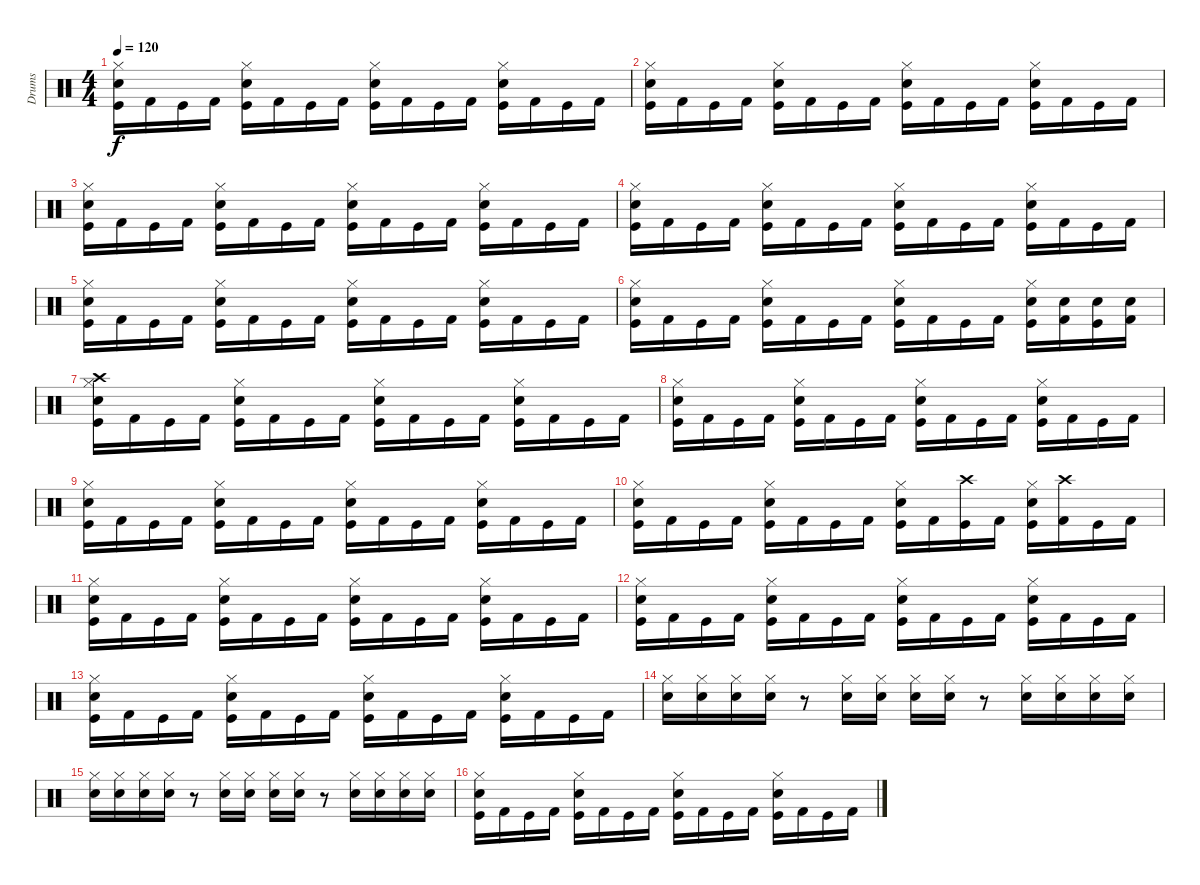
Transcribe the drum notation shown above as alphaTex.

\track ("Drums" "Drums") {instrument percussion}
\staff {score}
\articulation defaults
\ts (4 4)
\tempo 120
\clef neutral
\ks c
("Hi-Hat (closed)" "Snare (hit) 2" "Kick (hit)").16{dy f} "Kick (hit) 2".16 "Kick (hit)".16 "Kick (hit) 2".16 ("Hi-Hat (closed)" "Snare (hit) 2" "Kick (hit)").16 "Kick (hit) 2".16 "Kick (hit)".16 "Kick (hit) 2".16 ("Hi-Hat (closed)" "Snare (hit) 2" "Kick (hit)").16 "Kick (hit) 2".16 "Kick (hit)".16 "Kick (hit) 2".16 ("Hi-Hat (closed)" "Snare (hit) 2" "Kick (hit)").16 "Kick (hit) 2".16 "Kick (hit)".16 "Kick (hit) 2".16 |
("Hi-Hat (closed)" "Snare (hit) 2" "Kick (hit)").16 "Kick (hit) 2".16 "Kick (hit)".16 "Kick (hit) 2".16 ("Hi-Hat (closed)" "Snare (hit) 2" "Kick (hit)").16 "Kick (hit) 2".16 "Kick (hit)".16 "Kick (hit) 2".16 ("Hi-Hat (closed)" "Snare (hit) 2" "Kick (hit)").16 "Kick (hit) 2".16 "Kick (hit)".16 "Kick (hit) 2".16 ("Hi-Hat (closed)" "Snare (hit) 2" "Kick (hit)").16 "Kick (hit) 2".16 "Kick (hit)".16 "Kick (hit) 2".16 |
("Hi-Hat (closed)" "Snare (hit) 2" "Kick (hit)").16 "Kick (hit) 2".16 "Kick (hit)".16 "Kick (hit) 2".16 ("Hi-Hat (closed)" "Snare (hit) 2" "Kick (hit)").16 "Kick (hit) 2".16 "Kick (hit)".16 "Kick (hit) 2".16 ("Hi-Hat (closed)" "Snare (hit) 2" "Kick (hit)").16 "Kick (hit) 2".16 "Kick (hit)".16 "Kick (hit) 2".16 ("Hi-Hat (closed)" "Snare (hit) 2" "Kick (hit)").16 "Kick (hit) 2".16 "Kick (hit)".16 "Kick (hit) 2".16 |
("Hi-Hat (closed)" "Snare (hit) 2" "Kick (hit)").16 "Kick (hit) 2".16 "Kick (hit)".16 "Kick (hit) 2".16 ("Hi-Hat (closed)" "Snare (hit) 2" "Kick (hit)").16 "Kick (hit) 2".16 "Kick (hit)".16 "Kick (hit) 2".16 ("Hi-Hat (closed)" "Snare (hit) 2" "Kick (hit)").16 "Kick (hit) 2".16 "Kick (hit)".16 "Kick (hit) 2".16 ("Hi-Hat (closed)" "Snare (hit) 2" "Kick (hit)").16 "Kick (hit) 2".16 "Kick (hit)".16 "Kick (hit) 2".16 |
("Hi-Hat (closed)" "Snare (hit) 2" "Kick (hit)").16 "Kick (hit) 2".16 "Kick (hit)".16 "Kick (hit) 2".16 ("Hi-Hat (closed)" "Snare (hit) 2" "Kick (hit)").16 "Kick (hit) 2".16 "Kick (hit)".16 "Kick (hit) 2".16 ("Hi-Hat (closed)" "Snare (hit) 2" "Kick (hit)").16 "Kick (hit) 2".16 "Kick (hit)".16 "Kick (hit) 2".16 ("Hi-Hat (closed)" "Snare (hit) 2" "Kick (hit)").16 "Kick (hit) 2".16 "Kick (hit)".16 "Kick (hit) 2".16 |
("Hi-Hat (closed)" "Snare (hit) 2" "Kick (hit)").16 "Kick (hit) 2".16 "Kick (hit)".16 "Kick (hit) 2".16 ("Hi-Hat (closed)" "Snare (hit) 2" "Kick (hit)").16 "Kick (hit) 2".16 "Kick (hit)".16 "Kick (hit) 2".16 ("Hi-Hat (closed)" "Snare (hit) 2" "Kick (hit)").16 "Kick (hit) 2".16 "Kick (hit)".16 "Kick (hit) 2".16 ("Hi-Hat (closed)" "Snare (hit) 2" "Kick (hit)").16 ("Snare (hit) 2" "Kick (hit) 2").16 ("Snare (hit) 2" "Kick (hit)").16 ("Snare (hit) 2" "Kick (hit) 2").16 |
("Hi-Hat (closed)" "Crash high (hit)" "Snare (hit) 2" "Kick (hit)").16 "Kick (hit) 2".16 "Kick (hit)".16 "Kick (hit) 2".16 ("Hi-Hat (closed)" "Snare (hit) 2" "Kick (hit)").16 "Kick (hit) 2".16 "Kick (hit)".16 "Kick (hit) 2".16 ("Hi-Hat (closed)" "Snare (hit) 2" "Kick (hit)").16 "Kick (hit) 2".16 "Kick (hit)".16 "Kick (hit) 2".16 ("Hi-Hat (closed)" "Snare (hit) 2" "Kick (hit)").16 "Kick (hit) 2".16 "Kick (hit)".16 "Kick (hit) 2".16 |
("Hi-Hat (closed)" "Snare (hit) 2" "Kick (hit)").16 "Kick (hit) 2".16 "Kick (hit)".16 "Kick (hit) 2".16 ("Hi-Hat (closed)" "Snare (hit) 2" "Kick (hit)").16 "Kick (hit) 2".16 "Kick (hit)".16 "Kick (hit) 2".16 ("Hi-Hat (closed)" "Snare (hit) 2" "Kick (hit)").16 "Kick (hit) 2".16 "Kick (hit)".16 "Kick (hit) 2".16 ("Hi-Hat (closed)" "Snare (hit) 2" "Kick (hit)").16 "Kick (hit) 2".16 "Kick (hit)".16 "Kick (hit) 2".16 |
("Hi-Hat (closed)" "Snare (hit) 2" "Kick (hit)").16 "Kick (hit) 2".16 "Kick (hit)".16 "Kick (hit) 2".16 ("Hi-Hat (closed)" "Snare (hit) 2" "Kick (hit)").16 "Kick (hit) 2".16 "Kick (hit)".16 "Kick (hit) 2".16 ("Hi-Hat (closed)" "Snare (hit) 2" "Kick (hit)").16 "Kick (hit) 2".16 "Kick (hit)".16 "Kick (hit) 2".16 ("Hi-Hat (closed)" "Snare (hit) 2" "Kick (hit)").16 "Kick (hit) 2".16 "Kick (hit)".16 "Kick (hit) 2".16 |
("Hi-Hat (closed)" "Snare (hit) 2" "Kick (hit)").16 "Kick (hit) 2".16 "Kick (hit)".16 "Kick (hit) 2".16 ("Hi-Hat (closed)" "Snare (hit) 2" "Kick (hit)").16 "Kick (hit) 2".16 "Kick (hit)".16 "Kick (hit) 2".16 ("Hi-Hat (closed)" "Snare (hit) 2" "Kick (hit)").16 "Kick (hit) 2".16 ("Crash high (hit)" "Kick (hit)").16 "Kick (hit) 2".16 ("Hi-Hat (closed)" "Snare (hit) 2" "Kick (hit)").16 ("Crash high (hit)" "Kick (hit) 2").16 "Kick (hit)".16 "Kick (hit) 2".16 |
("Hi-Hat (closed)" "Snare (hit) 2" "Kick (hit)").16 "Kick (hit) 2".16 "Kick (hit)".16 "Kick (hit) 2".16 ("Hi-Hat (closed)" "Snare (hit) 2" "Kick (hit)").16 "Kick (hit) 2".16 "Kick (hit)".16 "Kick (hit) 2".16 ("Hi-Hat (closed)" "Snare (hit) 2" "Kick (hit)").16 "Kick (hit) 2".16 "Kick (hit)".16 "Kick (hit) 2".16 ("Hi-Hat (closed)" "Snare (hit) 2" "Kick (hit)").16 "Kick (hit) 2".16 "Kick (hit)".16 "Kick (hit) 2".16 |
("Hi-Hat (closed)" "Snare (hit) 2" "Kick (hit)").16 "Kick (hit) 2".16 "Kick (hit)".16 "Kick (hit) 2".16 ("Hi-Hat (closed)" "Snare (hit) 2" "Kick (hit)").16 "Kick (hit) 2".16 "Kick (hit)".16 "Kick (hit) 2".16 ("Hi-Hat (closed)" "Snare (hit) 2" "Kick (hit)").16 "Kick (hit) 2".16 "Kick (hit)".16 "Kick (hit) 2".16 ("Hi-Hat (closed)" "Snare (hit) 2" "Kick (hit)").16 "Kick (hit) 2".16 "Kick (hit)".16 "Kick (hit) 2".16 |
("Hi-Hat (closed)" "Snare (hit) 2" "Kick (hit)").16 "Kick (hit) 2".16 "Kick (hit)".16 "Kick (hit) 2".16 ("Hi-Hat (closed)" "Snare (hit) 2" "Kick (hit)").16 "Kick (hit) 2".16 "Kick (hit)".16 "Kick (hit) 2".16 ("Hi-Hat (closed)" "Snare (hit) 2" "Kick (hit)").16 "Kick (hit) 2".16 "Kick (hit)".16 "Kick (hit) 2".16 ("Hi-Hat (closed)" "Snare (hit) 2" "Kick (hit)").16 "Kick (hit) 2".16 "Kick (hit)".16 "Kick (hit) 2".16 |
("Hi-Hat (closed)" "Electric Snare (hit)").16 ("Hi-Hat (closed)" "Electric Snare (hit)").16 ("Hi-Hat (closed)" "Electric Snare (hit)").16 ("Hi-Hat (closed)" "Electric Snare (hit)").16 r.8 ("Hi-Hat (closed)" "Electric Snare (hit)").16 ("Hi-Hat (closed)" "Electric Snare (hit)").16 ("Hi-Hat (closed)" "Electric Snare (hit)").16 ("Hi-Hat (closed)" "Electric Snare (hit)").16 r.8 ("Hi-Hat (closed)" "Electric Snare (hit)").16 ("Hi-Hat (closed)" "Electric Snare (hit)").16 ("Hi-Hat (closed)" "Electric Snare (hit)").16 ("Hi-Hat (closed)" "Electric Snare (hit)").16 |
("Hi-Hat (closed)" "Snare (hit) 2").16 ("Hi-Hat (closed)" "Snare (hit) 2").16 ("Hi-Hat (closed)" "Snare (hit) 2").16 ("Hi-Hat (closed)" "Snare (hit) 2").16 r.8 ("Hi-Hat (closed)" "Snare (hit) 2").16 ("Hi-Hat (closed)" "Snare (hit) 2").16 ("Hi-Hat (closed)" "Snare (hit) 2").16 ("Hi-Hat (closed)" "Snare (hit) 2").16 r.8 ("Hi-Hat (closed)" "Snare (hit) 2").16 ("Hi-Hat (closed)" "Snare (hit) 2").16 ("Hi-Hat (closed)" "Snare (hit) 2").16 ("Hi-Hat (closed)" "Snare (hit) 2").16 |
("Hi-Hat (closed)" "Snare (hit) 2" "Kick (hit)").16 "Kick (hit) 2".16 "Kick (hit)".16 "Kick (hit) 2".16 ("Hi-Hat (closed)" "Snare (hit) 2" "Kick (hit)").16 "Kick (hit) 2".16 "Kick (hit)".16 "Kick (hit) 2".16 ("Hi-Hat (closed)" "Snare (hit) 2" "Kick (hit)").16 "Kick (hit) 2".16 "Kick (hit)".16 "Kick (hit) 2".16 ("Hi-Hat (closed)" "Snare (hit) 2" "Kick (hit)").16 "Kick (hit) 2".16 "Kick (hit)".16 "Kick (hit) 2".16
